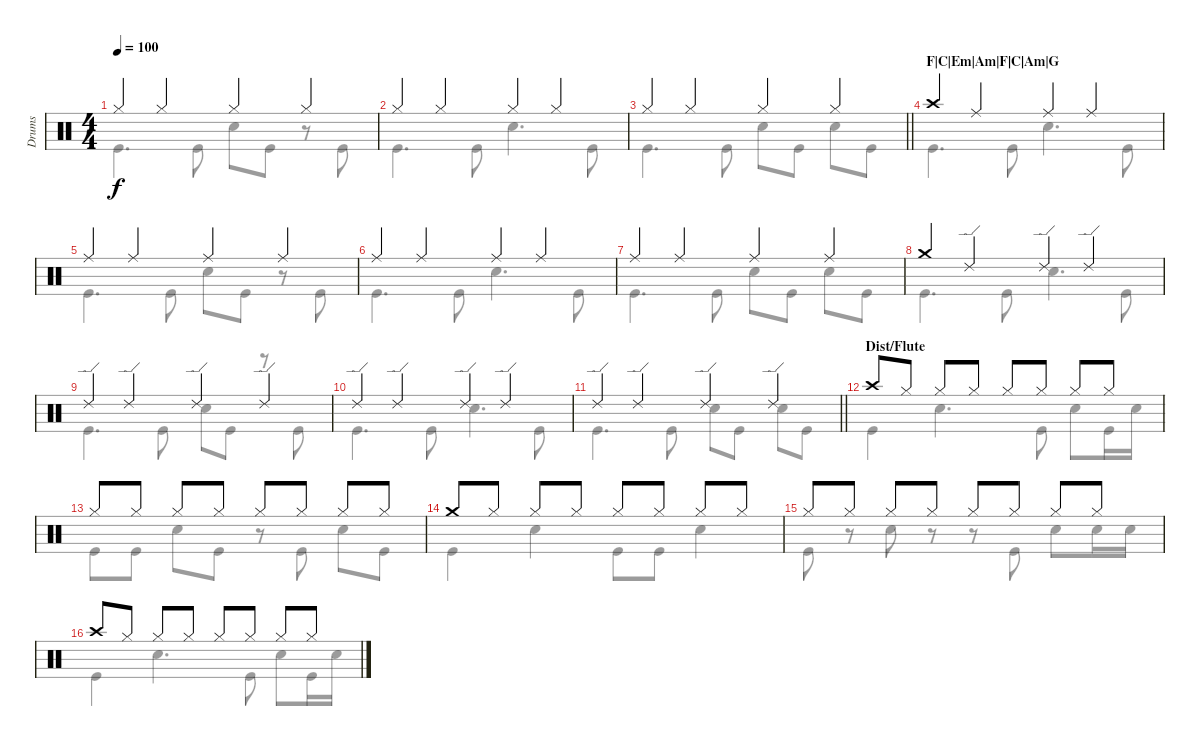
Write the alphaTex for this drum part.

\track ("Drums" "Drums") {instrument percussion}
\staff {score}
\articulation defaults
\voice
\ts (4 4)
\tempo 100
\clef neutral
\ks c "Hi-Hat (closed)".4{dy f} "Hi-Hat (closed)".4 "Hi-Hat (closed)".4 "Hi-Hat (closed)".4
|
"Hi-Hat (closed)".4 "Hi-Hat (closed)".4 "Hi-Hat (closed)".4 "Hi-Hat (closed)".4 |
\barLineRight lightlight "Hi-Hat (closed)".4 "Hi-Hat (closed)".4 "Hi-Hat (closed)".4 "Hi-Hat (closed)".4
|
\section ("" "F|C|Em|Am|F|C|Am|G")
"Crash high (hit)".4 "Ride (middle)".4 "Ride (middle)".4 "Ride (middle)".4 |
"Ride (middle)".4 "Ride (middle)".4 "Ride (middle)".4 "Ride (middle)".4 |
"Ride (middle)".4 "Ride (middle)".4 "Ride (middle)".4 "Ride (middle)".4 |
"Ride (middle)".4 "Ride (middle)".4 "Ride (middle)".4 "Ride (middle)".4 |
"Crash medium (hit)".4 "Ride (edge) 2".4 "Ride (edge) 2".4 "Ride (edge) 2".4 |
"Ride (edge) 2".4 "Ride (edge) 2".4 "Ride (edge) 2".4 "Ride (edge) 2".4 |
"Ride (edge) 2".4 "Ride (edge) 2".4 "Ride (edge) 2".4 "Ride (edge) 2".4 |
\barLineRight lightlight "Ride (edge) 2".4 "Ride (edge) 2".4 "Ride (edge) 2".4 "Ride (edge) 2".4
|
\section ("" "Dist/Flute")
"Crash high (hit)".8 "Hi-Hat (closed)".8 "Hi-Hat (closed)".8 "Hi-Hat (closed)".8 "Hi-Hat (closed)".8 "Hi-Hat (closed)".8 "Hi-Hat (closed)".8 "Hi-Hat (closed)".8 |
"Hi-Hat (closed)".8 "Hi-Hat (closed)".8 "Hi-Hat (closed)".8 "Hi-Hat (closed)".8 "Hi-Hat (closed)".8 "Hi-Hat (closed)".8 "Hi-Hat (closed)".8 "Hi-Hat (closed)".8 |
"Crash medium (hit)".8 "Hi-Hat (closed)".8 "Hi-Hat (closed)".8 "Hi-Hat (closed)".8 "Hi-Hat (closed)".8 "Hi-Hat (closed)".8 "Hi-Hat (closed)".8 "Hi-Hat (closed)".8 |
"Hi-Hat (closed)".8 "Hi-Hat (closed)".8 "Hi-Hat (closed)".8 "Hi-Hat (closed)".8 "Hi-Hat (closed)".8 "Hi-Hat (closed)".8 "Hi-Hat (closed)".8 "Hi-Hat (closed)".8 |
"Crash high (hit)".8 "Hi-Hat (closed)".8 "Hi-Hat (closed)".8 "Hi-Hat (closed)".8 "Hi-Hat (closed)".8 "Hi-Hat (closed)".8 "Hi-Hat (closed)".8 "Hi-Hat (closed)".8
\voice
\clef neutral
\ottava regular
\simile none
\ks c "Kick (hit)".4{d dy f} "Kick (hit)".8 "Snare (hit) 2".8 "Kick (hit)".8
r.8 "Kick (hit)".8 |
"Kick (hit)".4{d} "Kick (hit)".8 "Snare (hit) 2".4{d} "Kick (hit)".8 |
\barLineRight lightlight "Kick (hit)".4{d} "Kick (hit)".8 "Snare (hit) 2".8 "Kick (hit)".8 "Snare (hit) 2".8 "Kick (hit)".8
|
"Kick (hit)".4{d} "Kick (hit)".8 "Snare (hit) 2".4{d} "Kick (hit)".8 |
"Kick (hit)".4{d} "Kick (hit)".8 "Snare (hit) 2".8 "Kick (hit)".8 r.8 "Kick (hit)".8 |
"Kick (hit)".4{d} "Kick (hit)".8 "Snare (hit) 2".4{d} "Kick (hit)".8 |
"Kick (hit)".4{d} "Kick (hit)".8 "Snare (hit) 2".8 "Kick (hit)".8 "Snare (hit) 2".8 "Kick (hit)".8 |
"Kick (hit)".4{d} "Kick (hit)".8 "Snare (hit) 2".4{d} "Kick (hit)".8 |
"Kick (hit)".4{d} "Kick (hit)".8 "Snare (hit) 2".8 "Kick (hit)".8 r.8 "Kick (hit)".8 |
"Kick (hit)".4{d} "Kick (hit)".8 "Snare (hit) 2".4{d} "Kick (hit)".8 |
\barLineRight lightlight "Kick (hit)".4{d} "Kick (hit)".8 "Snare (hit) 2".8 "Kick (hit)".8 "Snare (hit) 2".8 "Kick (hit)".8
|
"Kick (hit)".4 "Snare (hit) 2".4{d} "Kick (hit)".8 "Snare (hit) 2".8 "Kick (hit)".16 "Snare (hit) 2".16 |
"Kick (hit)".8 "Kick (hit)".8 "Snare (hit) 2".8 "Kick (hit)".8 r.8 "Kick (hit)".8 "Snare (hit) 2".8 "Kick (hit)".8 |
"Kick (hit)".4 "Snare (hit) 2".4 "Kick (hit)".8 "Kick (hit)".8 "Snare (hit) 2".4 |
"Kick (hit)".8 r.8 "Snare (hit) 2".8 r.8 r.8 "Kick (hit)".8 "Snare (hit) 2".8 "Snare (hit) 2".16 "Snare (hit) 2".16 |
"Kick (hit)".4 "Snare (hit) 2".4{d} "Kick (hit)".8 "Snare (hit) 2".8 "Kick (hit)".16 "Snare (hit) 2".16
